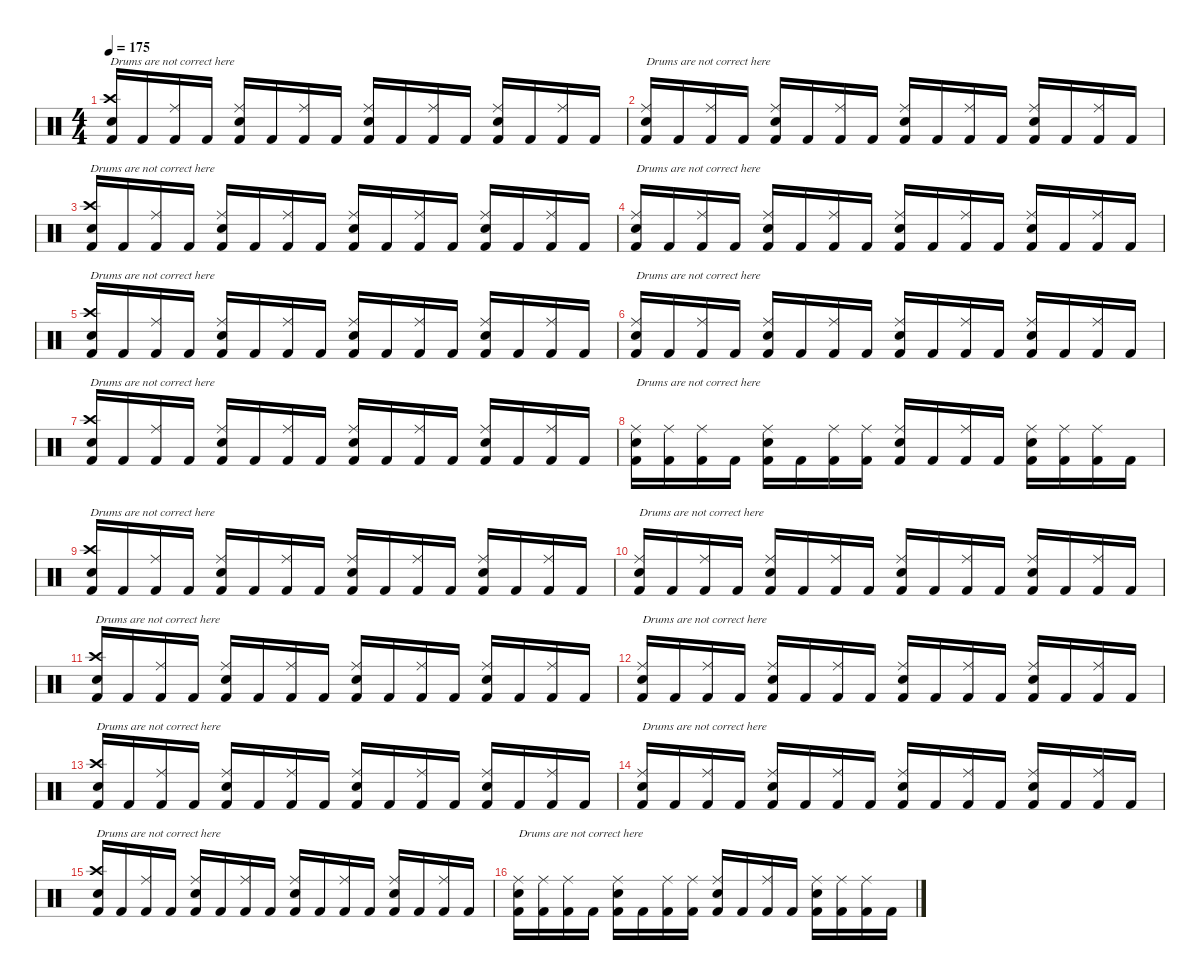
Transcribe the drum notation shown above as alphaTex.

\defaultSystemsLayout 4
\hideDynamics
\bracketExtendMode nobrackets
\singleTrackTrackNamePolicy hidden
\multiTrackTrackNamePolicy hidden
\firstSystemTrackNameMode fullname
\firstSystemTrackNameOrientation horizontal
\otherSystemsTrackNameOrientation horizontal
\track ("Fredrik Andersson" "drm.") {instrument percussion}
\staff {score}
\articulation defaults
\ts (4 4)
\tempo 175
\clef neutral
\ks c
("Crash high (hit)" "Snare (hit) 2" "Kick (hit) 2").16{txt "Drums are not correct here" dy f beam Up} "Kick (hit) 2".16{beam Up} ("Ride (middle)" "Kick (hit) 2").16{beam Up} "Kick (hit) 2".16{beam Up} ("Ride (middle)" "Snare (hit) 2" "Kick (hit) 2").16{beam Up} "Kick (hit) 2".16{beam Up} ("Ride (middle)" "Kick (hit) 2").16{beam Up} "Kick (hit) 2".16{beam Up} ("Ride (middle)" "Snare (hit) 2" "Kick (hit) 2").16{beam Up} "Kick (hit) 2".16{beam Up} ("Ride (middle)" "Kick (hit) 2").16{beam Up} "Kick (hit) 2".16{beam Up} ("Ride (middle)" "Snare (hit) 2" "Kick (hit) 2").16{beam Up} "Kick (hit) 2".16{beam Up} ("Ride (middle)" "Kick (hit) 2").16{beam Up} "Kick (hit) 2".16{beam Up} |
("Ride (middle)" "Snare (hit) 2" "Kick (hit) 2").16{txt "Drums are not correct here" beam Up} "Kick (hit) 2".16{beam Up} ("Ride (middle)" "Kick (hit) 2").16{beam Up} "Kick (hit) 2".16{beam Up} ("Ride (middle)" "Snare (hit) 2" "Kick (hit) 2").16{beam Up} "Kick (hit) 2".16{beam Up} ("Ride (middle)" "Kick (hit) 2").16{beam Up} "Kick (hit) 2".16{beam Up} ("Ride (middle)" "Snare (hit) 2" "Kick (hit) 2").16{beam Up} "Kick (hit) 2".16{beam Up} ("Ride (middle)" "Kick (hit) 2").16{beam Up} "Kick (hit) 2".16{beam Up} ("Ride (middle)" "Snare (hit) 2" "Kick (hit) 2").16{beam Up} "Kick (hit) 2".16{beam Up} ("Ride (middle)" "Kick (hit) 2").16{beam Up} "Kick (hit) 2".16{beam Up} |
("Crash high (hit)" "Snare (hit) 2" "Kick (hit) 2").16{txt "Drums are not correct here" beam Up} "Kick (hit) 2".16{beam Up} ("Ride (middle)" "Kick (hit) 2").16{beam Up} "Kick (hit) 2".16{beam Up} ("Ride (middle)" "Snare (hit) 2" "Kick (hit) 2").16{beam Up} "Kick (hit) 2".16{beam Up} ("Ride (middle)" "Kick (hit) 2").16{beam Up} "Kick (hit) 2".16{beam Up} ("Ride (middle)" "Snare (hit) 2" "Kick (hit) 2").16{beam Up} "Kick (hit) 2".16{beam Up} ("Ride (middle)" "Kick (hit) 2").16{beam Up} "Kick (hit) 2".16{beam Up} ("Ride (middle)" "Snare (hit) 2" "Kick (hit) 2").16{beam Up} "Kick (hit) 2".16{beam Up} ("Ride (middle)" "Kick (hit) 2").16{beam Up} "Kick (hit) 2".16{beam Up} |
("Ride (middle)" "Snare (hit) 2" "Kick (hit) 2").16{txt "Drums are not correct here" beam Up} "Kick (hit) 2".16{beam Up} ("Ride (middle)" "Kick (hit) 2").16{beam Up} "Kick (hit) 2".16{beam Up} ("Ride (middle)" "Snare (hit) 2" "Kick (hit) 2").16{beam Up} "Kick (hit) 2".16{beam Up} ("Ride (middle)" "Kick (hit) 2").16{beam Up} "Kick (hit) 2".16{beam Up} ("Ride (middle)" "Snare (hit) 2" "Kick (hit) 2").16{beam Up} "Kick (hit) 2".16{beam Up} ("Ride (middle)" "Kick (hit) 2").16{beam Up} "Kick (hit) 2".16{beam Up} ("Ride (middle)" "Snare (hit) 2" "Kick (hit) 2").16{beam Up} "Kick (hit) 2".16{beam Up} ("Ride (middle)" "Kick (hit) 2").16{beam Up} "Kick (hit) 2".16{beam Up} |
("Crash high (hit)" "Snare (hit) 2" "Kick (hit) 2").16{txt "Drums are not correct here" beam Up} "Kick (hit) 2".16{beam Up} ("Ride (middle)" "Kick (hit) 2").16{beam Up} "Kick (hit) 2".16{beam Up} ("Ride (middle)" "Snare (hit) 2" "Kick (hit) 2").16{beam Up} "Kick (hit) 2".16{beam Up} ("Ride (middle)" "Kick (hit) 2").16{beam Up} "Kick (hit) 2".16{beam Up} ("Ride (middle)" "Snare (hit) 2" "Kick (hit) 2").16{beam Up} "Kick (hit) 2".16{beam Up} ("Ride (middle)" "Kick (hit) 2").16{beam Up} "Kick (hit) 2".16{beam Up} ("Ride (middle)" "Snare (hit) 2" "Kick (hit) 2").16{beam Up} "Kick (hit) 2".16{beam Up} ("Ride (middle)" "Kick (hit) 2").16{beam Up} "Kick (hit) 2".16{beam Up} |
("Ride (middle)" "Snare (hit) 2" "Kick (hit) 2").16{txt "Drums are not correct here" beam Up} "Kick (hit) 2".16{beam Up} ("Ride (middle)" "Kick (hit) 2").16{beam Up} "Kick (hit) 2".16{beam Up} ("Ride (middle)" "Snare (hit) 2" "Kick (hit) 2").16{beam Up} "Kick (hit) 2".16{beam Up} ("Ride (middle)" "Kick (hit) 2").16{beam Up} "Kick (hit) 2".16{beam Up} ("Ride (middle)" "Snare (hit) 2" "Kick (hit) 2").16{beam Up} "Kick (hit) 2".16{beam Up} ("Ride (middle)" "Kick (hit) 2").16{beam Up} "Kick (hit) 2".16{beam Up} ("Ride (middle)" "Snare (hit) 2" "Kick (hit) 2").16{beam Up} "Kick (hit) 2".16{beam Up} ("Ride (middle)" "Kick (hit) 2").16{beam Up} "Kick (hit) 2".16{beam Up} |
("Crash high (hit)" "Snare (hit) 2" "Kick (hit) 2").16{txt "Drums are not correct here" beam Up} "Kick (hit) 2".16{beam Up} ("Ride (middle)" "Kick (hit) 2").16{beam Up} "Kick (hit) 2".16{beam Up} ("Ride (middle)" "Snare (hit) 2" "Kick (hit) 2").16{beam Up} "Kick (hit) 2".16{beam Up} ("Ride (middle)" "Kick (hit) 2").16{beam Up} "Kick (hit) 2".16{beam Up} ("Ride (middle)" "Snare (hit) 2" "Kick (hit) 2").16{beam Up} "Kick (hit) 2".16{beam Up} ("Ride (middle)" "Kick (hit) 2").16{beam Up} "Kick (hit) 2".16{beam Up} ("Ride (middle)" "Snare (hit) 2" "Kick (hit) 2").16{beam Up} "Kick (hit) 2".16{beam Up} ("Ride (middle)" "Kick (hit) 2").16{beam Up} "Kick (hit) 2".16{beam Up} |
("Ride (middle)" "Snare (hit) 2" "Kick (hit) 2").16{txt "Drums are not correct here" beam Down} ("Ride (middle)" "Kick (hit) 2").16{beam Down} ("Ride (middle)" "Kick (hit) 2").16{beam Down} "Kick (hit) 2".16{beam Down} ("Ride (middle)" "Snare (hit) 2" "Kick (hit) 2").16{beam Down} "Kick (hit) 2".16{beam Down} ("Ride (middle)" "Kick (hit) 2").16{beam Down} ("Ride (middle)" "Kick (hit) 2").16{beam Down} ("Ride (middle)" "Snare (hit) 2" "Kick (hit) 2").16{beam Up} "Kick (hit) 2".16{beam Up} ("Ride (middle)" "Kick (hit) 2").16{beam Up} "Kick (hit) 2".16{beam Up} ("Ride (middle)" "Snare (hit) 2" "Kick (hit) 2").16{beam Down} ("Ride (middle)" "Kick (hit) 2").16{beam Down} ("Ride (middle)" "Kick (hit) 2").16{beam Down} "Kick (hit) 2".16{beam Down} |
("Crash high (hit)" "Snare (hit) 2" "Kick (hit) 2").16{txt "Drums are not correct here" beam Up} "Kick (hit) 2".16{beam Up} ("Ride (middle)" "Kick (hit) 2").16{beam Up} "Kick (hit) 2".16{beam Up} ("Ride (middle)" "Snare (hit) 2" "Kick (hit) 2").16{beam Up} "Kick (hit) 2".16{beam Up} ("Ride (middle)" "Kick (hit) 2").16{beam Up} "Kick (hit) 2".16{beam Up} ("Ride (middle)" "Snare (hit) 2" "Kick (hit) 2").16{beam Up} "Kick (hit) 2".16{beam Up} ("Ride (middle)" "Kick (hit) 2").16{beam Up} "Kick (hit) 2".16{beam Up} ("Ride (middle)" "Snare (hit) 2" "Kick (hit) 2").16{beam Up} "Kick (hit) 2".16{beam Up} ("Ride (middle)" "Kick (hit) 2").16{beam Up} "Kick (hit) 2".16{beam Up} |
("Ride (middle)" "Snare (hit) 2" "Kick (hit) 2").16{txt "Drums are not correct here" beam Up} "Kick (hit) 2".16{beam Up} ("Ride (middle)" "Kick (hit) 2").16{beam Up} "Kick (hit) 2".16{beam Up} ("Ride (middle)" "Snare (hit) 2" "Kick (hit) 2").16{beam Up} "Kick (hit) 2".16{beam Up} ("Ride (middle)" "Kick (hit) 2").16{beam Up} "Kick (hit) 2".16{beam Up} ("Ride (middle)" "Snare (hit) 2" "Kick (hit) 2").16{beam Up} "Kick (hit) 2".16{beam Up} ("Ride (middle)" "Kick (hit) 2").16{beam Up} "Kick (hit) 2".16{beam Up} ("Ride (middle)" "Snare (hit) 2" "Kick (hit) 2").16{beam Up} "Kick (hit) 2".16{beam Up} ("Ride (middle)" "Kick (hit) 2").16{beam Up} "Kick (hit) 2".16{beam Up} |
("Crash high (hit)" "Snare (hit) 2" "Kick (hit) 2").16{txt "Drums are not correct here" beam Up} "Kick (hit) 2".16{beam Up} ("Ride (middle)" "Kick (hit) 2").16{beam Up} "Kick (hit) 2".16{beam Up} ("Ride (middle)" "Snare (hit) 2" "Kick (hit) 2").16{beam Up} "Kick (hit) 2".16{beam Up} ("Ride (middle)" "Kick (hit) 2").16{beam Up} "Kick (hit) 2".16{beam Up} ("Ride (middle)" "Snare (hit) 2" "Kick (hit) 2").16{beam Up} "Kick (hit) 2".16{beam Up} ("Ride (middle)" "Kick (hit) 2").16{beam Up} "Kick (hit) 2".16{beam Up} ("Ride (middle)" "Snare (hit) 2" "Kick (hit) 2").16{beam Up} "Kick (hit) 2".16{beam Up} ("Ride (middle)" "Kick (hit) 2").16{beam Up} "Kick (hit) 2".16{beam Up} |
("Ride (middle)" "Snare (hit) 2" "Kick (hit) 2").16{txt "Drums are not correct here" beam Up} "Kick (hit) 2".16{beam Up} ("Ride (middle)" "Kick (hit) 2").16{beam Up} "Kick (hit) 2".16{beam Up} ("Ride (middle)" "Snare (hit) 2" "Kick (hit) 2").16{beam Up} "Kick (hit) 2".16{beam Up} ("Ride (middle)" "Kick (hit) 2").16{beam Up} "Kick (hit) 2".16{beam Up} ("Ride (middle)" "Snare (hit) 2" "Kick (hit) 2").16{beam Up} "Kick (hit) 2".16{beam Up} ("Ride (middle)" "Kick (hit) 2").16{beam Up} "Kick (hit) 2".16{beam Up} ("Ride (middle)" "Snare (hit) 2" "Kick (hit) 2").16{beam Up} "Kick (hit) 2".16{beam Up} ("Ride (middle)" "Kick (hit) 2").16{beam Up} "Kick (hit) 2".16{beam Up} |
("Crash high (hit)" "Snare (hit) 2" "Kick (hit) 2").16{txt "Drums are not correct here" beam Up} "Kick (hit) 2".16{beam Up} ("Ride (middle)" "Kick (hit) 2").16{beam Up} "Kick (hit) 2".16{beam Up} ("Ride (middle)" "Snare (hit) 2" "Kick (hit) 2").16{beam Up} "Kick (hit) 2".16{beam Up} ("Ride (middle)" "Kick (hit) 2").16{beam Up} "Kick (hit) 2".16{beam Up} ("Ride (middle)" "Snare (hit) 2" "Kick (hit) 2").16{beam Up} "Kick (hit) 2".16{beam Up} ("Ride (middle)" "Kick (hit) 2").16{beam Up} "Kick (hit) 2".16{beam Up} ("Ride (middle)" "Snare (hit) 2" "Kick (hit) 2").16{beam Up} "Kick (hit) 2".16{beam Up} ("Ride (middle)" "Kick (hit) 2").16{beam Up} "Kick (hit) 2".16{beam Up} |
("Ride (middle)" "Snare (hit) 2" "Kick (hit) 2").16{txt "Drums are not correct here" beam Up} "Kick (hit) 2".16{beam Up} ("Ride (middle)" "Kick (hit) 2").16{beam Up} "Kick (hit) 2".16{beam Up} ("Ride (middle)" "Snare (hit) 2" "Kick (hit) 2").16{beam Up} "Kick (hit) 2".16{beam Up} ("Ride (middle)" "Kick (hit) 2").16{beam Up} "Kick (hit) 2".16{beam Up} ("Ride (middle)" "Snare (hit) 2" "Kick (hit) 2").16{beam Up} "Kick (hit) 2".16{beam Up} ("Ride (middle)" "Kick (hit) 2").16{beam Up} "Kick (hit) 2".16{beam Up} ("Ride (middle)" "Snare (hit) 2" "Kick (hit) 2").16{beam Up} "Kick (hit) 2".16{beam Up} ("Ride (middle)" "Kick (hit) 2").16{beam Up} "Kick (hit) 2".16{beam Up} |
("Crash high (hit)" "Snare (hit) 2" "Kick (hit) 2").16{txt "Drums are not correct here" beam Up} "Kick (hit) 2".16{beam Up} ("Ride (middle)" "Kick (hit) 2").16{beam Up} "Kick (hit) 2".16{beam Up} ("Ride (middle)" "Snare (hit) 2" "Kick (hit) 2").16{beam Up} "Kick (hit) 2".16{beam Up} ("Ride (middle)" "Kick (hit) 2").16{beam Up} "Kick (hit) 2".16{beam Up} ("Ride (middle)" "Snare (hit) 2" "Kick (hit) 2").16{beam Up} "Kick (hit) 2".16{beam Up} ("Ride (middle)" "Kick (hit) 2").16{beam Up} "Kick (hit) 2".16{beam Up} ("Ride (middle)" "Snare (hit) 2" "Kick (hit) 2").16{beam Up} "Kick (hit) 2".16{beam Up} ("Ride (middle)" "Kick (hit) 2").16{beam Up} "Kick (hit) 2".16{beam Up} |
("Ride (middle)" "Snare (hit) 2" "Kick (hit) 2").16{txt "Drums are not correct here" beam Down} ("Ride (middle)" "Kick (hit) 2").16{beam Down} ("Ride (middle)" "Kick (hit) 2").16{beam Down} "Kick (hit) 2".16{beam Down} ("Ride (middle)" "Snare (hit) 2" "Kick (hit) 2").16{beam Down} "Kick (hit) 2".16{beam Down} ("Ride (middle)" "Kick (hit) 2").16{beam Down} ("Ride (middle)" "Kick (hit) 2").16{beam Down} ("Ride (middle)" "Snare (hit) 2" "Kick (hit) 2").16{beam Up} "Kick (hit) 2".16{beam Up} ("Ride (middle)" "Kick (hit) 2").16{beam Up} "Kick (hit) 2".16{beam Up} ("Ride (middle)" "Snare (hit) 2" "Kick (hit) 2").16{beam Down} ("Ride (middle)" "Kick (hit) 2").16{beam Down} ("Ride (middle)" "Kick (hit) 2").16{beam Down} "Kick (hit) 2".16{beam Down}
